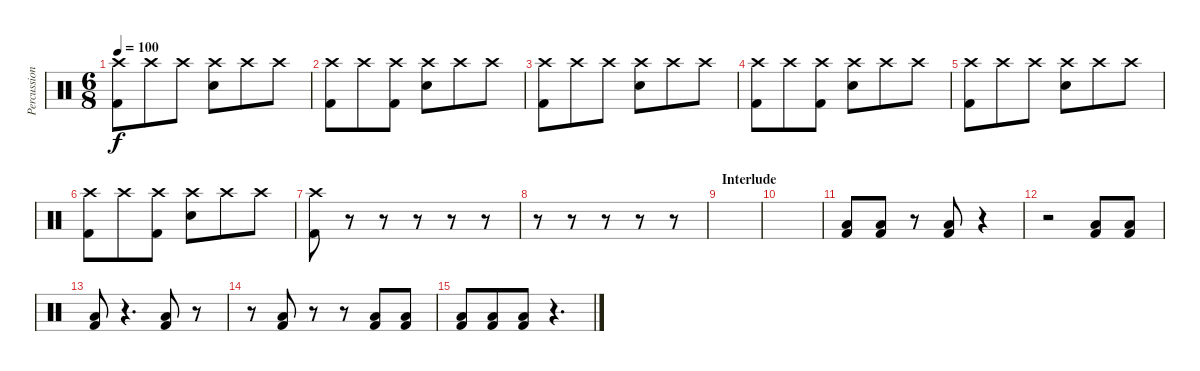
\track ("Percussion" "Percussion") {instrument percussion}
\staff {score}
\articulation defaults
\ts (6 8)
\tempo 100
\clef neutral
\ks c
("Crash high (hit)" "Kick (hit) 2").8{dy f} "Crash high (hit)".8 "Crash high (hit)".8 ("Crash high (hit)" "Electric Snare (hit)").8 "Crash high (hit)".8 "Crash high (hit)".8 |
("Crash high (hit)" "Kick (hit) 2").8 "Crash high (hit)".8 ("Crash high (hit)" "Kick (hit) 2").8 ("Crash high (hit)" "Electric Snare (hit)").8 "Crash high (hit)".8 "Crash high (hit)".8 |
("Crash high (hit)" "Kick (hit) 2").8 "Crash high (hit)".8 "Crash high (hit)".8 ("Crash high (hit)" "Electric Snare (hit)").8 "Crash high (hit)".8 "Crash high (hit)".8 |
("Crash high (hit)" "Kick (hit) 2").8 "Crash high (hit)".8 ("Crash high (hit)" "Kick (hit) 2").8 ("Crash high (hit)" "Electric Snare (hit)").8 "Crash high (hit)".8 "Crash high (hit)".8 |
("Crash high (hit)" "Kick (hit) 2").8 "Crash high (hit)".8 "Crash high (hit)".8 ("Crash high (hit)" "Electric Snare (hit)").8 "Crash high (hit)".8 "Crash high (hit)".8 |
("Crash high (hit)" "Kick (hit) 2").8 "Crash high (hit)".8 ("Crash high (hit)" "Kick (hit) 2").8 ("Crash high (hit)" "Electric Snare (hit)").8 "Crash high (hit)".8 "Crash high (hit)".8 |
("Crash high (hit)" "Kick (hit) 2").8 r.8 r.8 r.8 r.8 r.8 |
r.8 r.8 r.8 r.8 r.8 |
\section ("" "Interlude")
|
|
("Low Floor Tom (hit)" "Kick (hit) 2").8 ("Low Floor Tom (hit)" "Kick (hit) 2").8 r.8 ("Low Floor Tom (hit)" "Kick (hit) 2").8 r.4 |
r.2 ("Low Floor Tom (hit)" "Kick (hit) 2").8 ("Low Floor Tom (hit)" "Kick (hit) 2").8 |
("Low Floor Tom (hit)" "Kick (hit) 2").8 r.4{d} ("Low Floor Tom (hit)" "Kick (hit) 2").8 r.8 |
r.8 ("Low Floor Tom (hit)" "Kick (hit) 2").8 r.8 r.8 ("Low Floor Tom (hit)" "Kick (hit) 2").8 ("Low Floor Tom (hit)" "Kick (hit) 2").8 |
("Low Floor Tom (hit)" "Kick (hit) 2").8 ("Low Floor Tom (hit)" "Kick (hit) 2").8 ("Low Floor Tom (hit)" "Kick (hit) 2").8 r.4{d}
